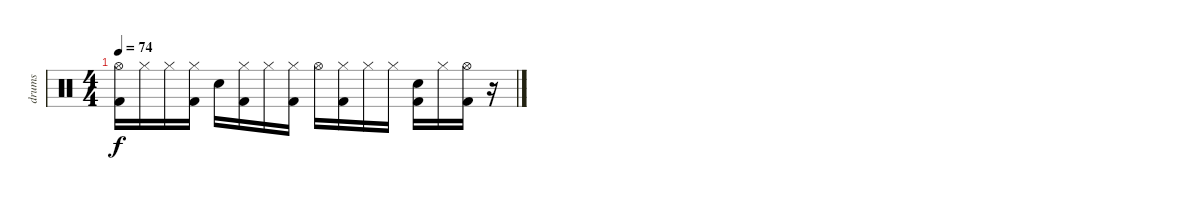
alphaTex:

\track ("drums" "drums") {instrument percussion}
\staff {score}
\articulation defaults
\ts (4 4)
\tempo 74
\clef neutral
\ks c
("Hi-Hat (open)" "Kick (hit) 2").16{dy f} "Hi-Hat (closed)".16 "Hi-Hat (closed)".16 ("Hi-Hat (closed)" "Kick (hit) 2").16 "Snare (hit) 2".16 ("Hi-Hat (closed)" "Kick (hit) 2").16 "Hi-Hat (closed)".16 ("Hi-Hat (closed)" "Kick (hit) 2").16 "Hi-Hat (open)".16 ("Hi-Hat (closed)" "Kick (hit) 2").16 "Hi-Hat (closed)".16 "Hi-Hat (closed)".16 ("Snare (hit) 2" "Kick (hit) 2").16 "Hi-Hat (closed)".16 ("Hi-Hat (open)" "Kick (hit) 2").16 r.16
